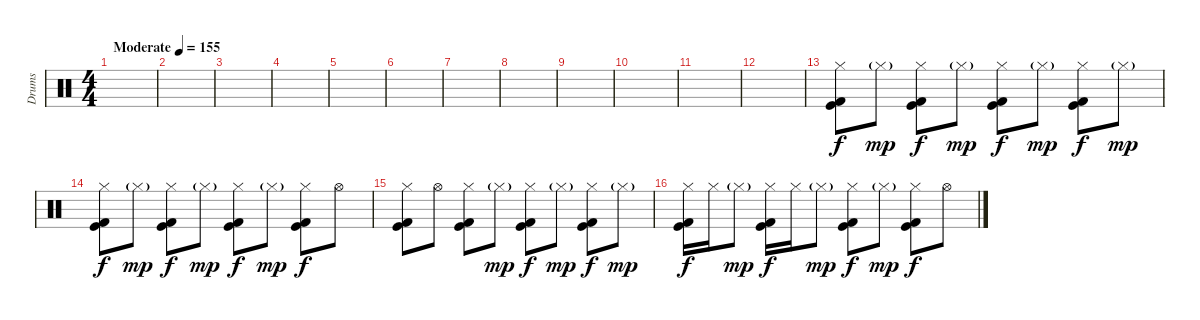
\track ("Drums" "Drums") {instrument percussion}
\staff {score}
\articulation defaults
\ts (4 4)
\tempo (155 "Moderate")
\clef neutral
\ks c
|
|
|
|
|
|
|
|
|
|
|
|
("Hi-Hat (closed)" "Kick (hit)" "Kick (hit) 2").8 "Hi-Hat (closed)"{g}.8{dy mp} ("Hi-Hat (closed)" "Kick (hit)" "Kick (hit) 2").8{dy f} "Hi-Hat (closed)"{g}.8{dy mp} ("Hi-Hat (closed)" "Kick (hit)" "Kick (hit) 2").8{dy f} "Hi-Hat (closed)"{g}.8{dy mp} ("Hi-Hat (closed)" "Kick (hit)" "Kick (hit) 2").8{dy f} "Hi-Hat (closed)"{g}.8{dy mp} |
("Hi-Hat (closed)" "Kick (hit)" "Kick (hit) 2").8{dy f} "Hi-Hat (closed)"{g}.8{dy mp} ("Hi-Hat (closed)" "Kick (hit)" "Kick (hit) 2").8{dy f} "Hi-Hat (closed)"{g}.8{dy mp} ("Hi-Hat (closed)" "Kick (hit)" "Kick (hit) 2").8{dy f} "Hi-Hat (closed)"{g}.8{dy mp} ("Hi-Hat (closed)" "Kick (hit)" "Kick (hit) 2").8{dy f} "Hi-Hat (open)".8 |
("Hi-Hat (closed)" "Kick (hit)" "Kick (hit) 2").8 "Hi-Hat (open)".8 ("Hi-Hat (closed)" "Kick (hit)" "Kick (hit) 2").8 "Hi-Hat (closed)"{g}.8{dy mp} ("Hi-Hat (closed)" "Kick (hit)" "Kick (hit) 2").8{dy f} "Hi-Hat (closed)"{g}.8{dy mp} ("Hi-Hat (closed)" "Kick (hit)" "Kick (hit) 2").8{dy f} "Hi-Hat (closed)"{g}.8{dy mp} |
("Hi-Hat (closed)" "Kick (hit)" "Kick (hit) 2").16{dy f} "Hi-Hat (closed)".16 "Hi-Hat (closed)"{g}.8{dy mp} ("Hi-Hat (closed)" "Kick (hit)" "Kick (hit) 2").16{dy f} "Hi-Hat (closed)".16 "Hi-Hat (closed)"{g}.8{dy mp} ("Hi-Hat (closed)" "Kick (hit)" "Kick (hit) 2").8{dy f} "Hi-Hat (closed)"{g}.8{dy mp} ("Hi-Hat (closed)" "Kick (hit)" "Kick (hit) 2").8{dy f} "Hi-Hat (open)".8
